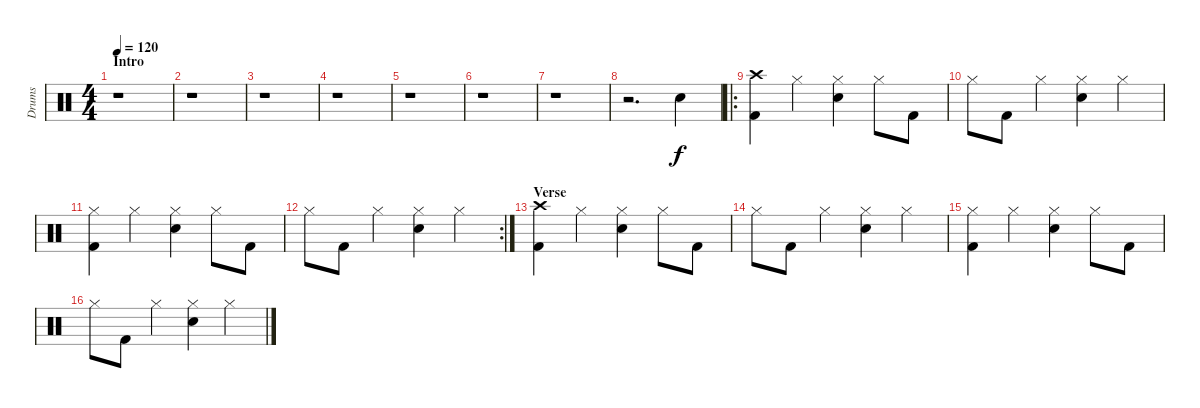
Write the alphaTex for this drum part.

\track ("Drums" "Drums") {instrument percussion}
\staff {score}
\articulation defaults
\ts (4 4)
\section ("" "Intro")
\tempo 120
\clef neutral
\ks c
r.1{dy f} |
r.1 |
r.1 |
r.1 |
r.1 |
r.1 |
r.1 |
r.2{d} "Electric Snare (hit)".4 |
\ro
("Crash high (hit)" "Kick (hit) 2").4 "Hi-Hat (closed)".4 ("Hi-Hat (closed)" "Electric Snare (hit)").4 "Hi-Hat (closed)".8 "Kick (hit) 2".8 |
"Hi-Hat (closed)".8 "Kick (hit) 2".8 "Hi-Hat (closed)".4 ("Hi-Hat (closed)" "Electric Snare (hit)").4 "Hi-Hat (closed)".4 |
("Hi-Hat (closed)" "Kick (hit) 2").4 "Hi-Hat (closed)".4 ("Hi-Hat (closed)" "Electric Snare (hit)").4 "Hi-Hat (closed)".8 "Kick (hit) 2".8 |
\rc 2 "Hi-Hat (closed)".8 "Kick (hit) 2".8 "Hi-Hat (closed)".4
("Hi-Hat (closed)" "Electric Snare (hit)").4 "Hi-Hat (closed)".4 |
\section ("" "Verse")
("Crash high (hit)" "Kick (hit) 2").4 "Hi-Hat (closed)".4 ("Hi-Hat (closed)" "Electric Snare (hit)").4 "Hi-Hat (closed)".8 "Kick (hit) 2".8 |
"Hi-Hat (closed)".8 "Kick (hit) 2".8 "Hi-Hat (closed)".4 ("Hi-Hat (closed)" "Electric Snare (hit)").4 "Hi-Hat (closed)".4 |
("Hi-Hat (closed)" "Kick (hit) 2").4 "Hi-Hat (closed)".4 ("Hi-Hat (closed)" "Electric Snare (hit)").4 "Hi-Hat (closed)".8 "Kick (hit) 2".8 |
"Hi-Hat (closed)".8 "Kick (hit) 2".8 "Hi-Hat (closed)".4 ("Hi-Hat (closed)" "Electric Snare (hit)").4 "Hi-Hat (closed)".4
